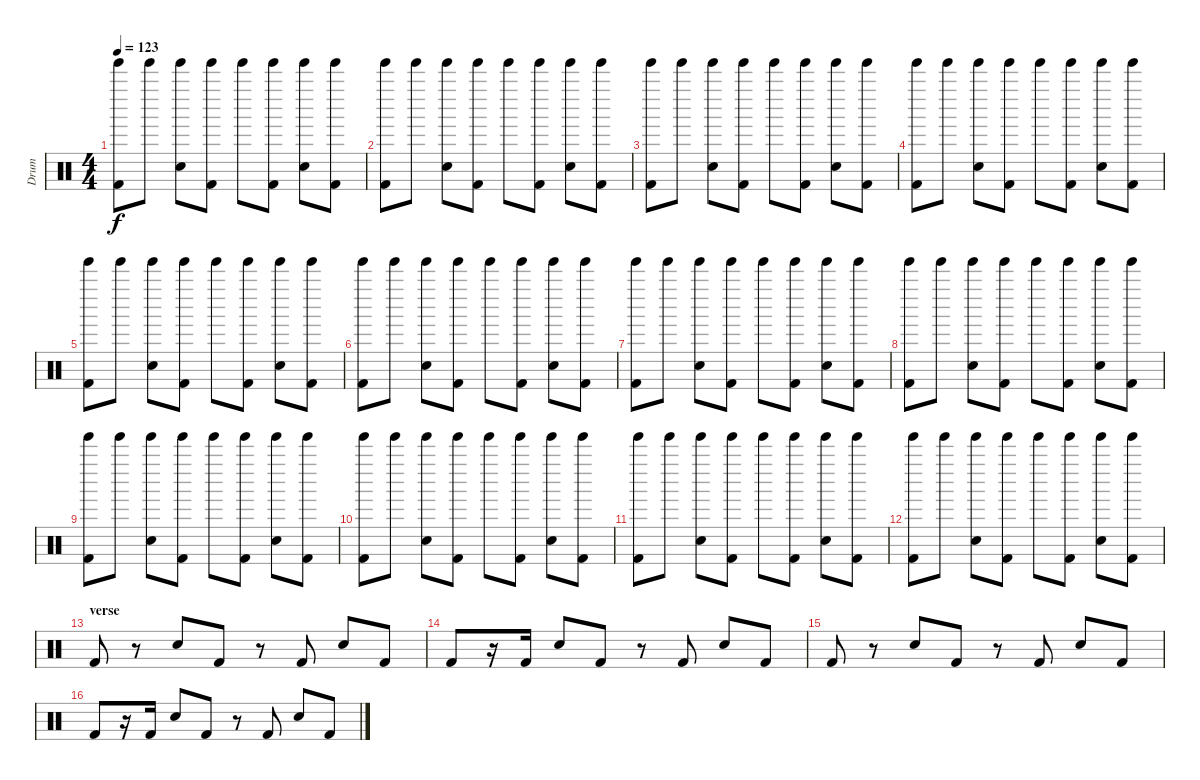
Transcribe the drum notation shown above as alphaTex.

\track ("Drum" "Drum") {instrument percussion}
\staff {score}
\articulation defaults
\ts (4 4)
\tempo 123
\clef neutral
\ks c
("Tinkle Bell (hit)" "Kick (hit) 2").8{dy f} "Tinkle Bell (hit)".8 ("Tinkle Bell (hit)" "Electric Snare (hit)").8 ("Tinkle Bell (hit)" "Kick (hit) 2").8 "Tinkle Bell (hit)".8 ("Tinkle Bell (hit)" "Kick (hit) 2").8 ("Tinkle Bell (hit)" "Electric Snare (hit)").8 ("Tinkle Bell (hit)" "Kick (hit) 2").8 |
("Tinkle Bell (hit)" "Kick (hit) 2").8 "Tinkle Bell (hit)".8 ("Tinkle Bell (hit)" "Electric Snare (hit)").8 ("Tinkle Bell (hit)" "Kick (hit) 2").8 "Tinkle Bell (hit)".8 ("Tinkle Bell (hit)" "Kick (hit) 2").8 ("Tinkle Bell (hit)" "Electric Snare (hit)").8 ("Tinkle Bell (hit)" "Kick (hit) 2").8 |
("Tinkle Bell (hit)" "Kick (hit) 2").8 "Tinkle Bell (hit)".8 ("Tinkle Bell (hit)" "Electric Snare (hit)").8 ("Tinkle Bell (hit)" "Kick (hit) 2").8 "Tinkle Bell (hit)".8 ("Tinkle Bell (hit)" "Kick (hit) 2").8 ("Tinkle Bell (hit)" "Electric Snare (hit)").8 ("Tinkle Bell (hit)" "Kick (hit) 2").8 |
("Tinkle Bell (hit)" "Kick (hit) 2").8 "Tinkle Bell (hit)".8 ("Tinkle Bell (hit)" "Electric Snare (hit)").8 ("Tinkle Bell (hit)" "Kick (hit) 2").8 "Tinkle Bell (hit)".8 ("Tinkle Bell (hit)" "Kick (hit) 2").8 ("Tinkle Bell (hit)" "Electric Snare (hit)").8 ("Tinkle Bell (hit)" "Kick (hit) 2").8 |
("Tinkle Bell (hit)" "Kick (hit) 2").8 "Tinkle Bell (hit)".8 ("Tinkle Bell (hit)" "Electric Snare (hit)").8 ("Tinkle Bell (hit)" "Kick (hit) 2").8 "Tinkle Bell (hit)".8 ("Tinkle Bell (hit)" "Kick (hit) 2").8 ("Tinkle Bell (hit)" "Electric Snare (hit)").8 ("Tinkle Bell (hit)" "Kick (hit) 2").8 |
("Tinkle Bell (hit)" "Kick (hit) 2").8 "Tinkle Bell (hit)".8 ("Tinkle Bell (hit)" "Electric Snare (hit)").8 ("Tinkle Bell (hit)" "Kick (hit) 2").8 "Tinkle Bell (hit)".8 ("Tinkle Bell (hit)" "Kick (hit) 2").8 ("Tinkle Bell (hit)" "Electric Snare (hit)").8 ("Tinkle Bell (hit)" "Kick (hit) 2").8 |
("Tinkle Bell (hit)" "Kick (hit) 2").8 "Tinkle Bell (hit)".8 ("Tinkle Bell (hit)" "Electric Snare (hit)").8 ("Tinkle Bell (hit)" "Kick (hit) 2").8 "Tinkle Bell (hit)".8 ("Tinkle Bell (hit)" "Kick (hit) 2").8 ("Tinkle Bell (hit)" "Electric Snare (hit)").8 ("Tinkle Bell (hit)" "Kick (hit) 2").8 |
("Tinkle Bell (hit)" "Kick (hit) 2").8 "Tinkle Bell (hit)".8 ("Tinkle Bell (hit)" "Electric Snare (hit)").8 ("Tinkle Bell (hit)" "Kick (hit) 2").8 "Tinkle Bell (hit)".8 ("Tinkle Bell (hit)" "Kick (hit) 2").8 ("Tinkle Bell (hit)" "Electric Snare (hit)").8 ("Tinkle Bell (hit)" "Kick (hit) 2").8 |
("Tinkle Bell (hit)" "Kick (hit) 2").8 "Tinkle Bell (hit)".8 ("Tinkle Bell (hit)" "Electric Snare (hit)").8 ("Tinkle Bell (hit)" "Kick (hit) 2").8 "Tinkle Bell (hit)".8 ("Tinkle Bell (hit)" "Kick (hit) 2").8 ("Tinkle Bell (hit)" "Electric Snare (hit)").8 ("Tinkle Bell (hit)" "Kick (hit) 2").8 |
("Tinkle Bell (hit)" "Kick (hit) 2").8 "Tinkle Bell (hit)".8 ("Tinkle Bell (hit)" "Electric Snare (hit)").8 ("Tinkle Bell (hit)" "Kick (hit) 2").8 "Tinkle Bell (hit)".8 ("Tinkle Bell (hit)" "Kick (hit) 2").8 ("Tinkle Bell (hit)" "Electric Snare (hit)").8 ("Tinkle Bell (hit)" "Kick (hit) 2").8 |
("Tinkle Bell (hit)" "Kick (hit) 2").8 "Tinkle Bell (hit)".8 ("Tinkle Bell (hit)" "Electric Snare (hit)").8 ("Tinkle Bell (hit)" "Kick (hit) 2").8 "Tinkle Bell (hit)".8 ("Tinkle Bell (hit)" "Kick (hit) 2").8 ("Tinkle Bell (hit)" "Electric Snare (hit)").8 ("Tinkle Bell (hit)" "Kick (hit) 2").8 |
("Tinkle Bell (hit)" "Kick (hit) 2").8 "Tinkle Bell (hit)".8 ("Tinkle Bell (hit)" "Electric Snare (hit)").8 ("Tinkle Bell (hit)" "Kick (hit) 2").8 "Tinkle Bell (hit)".8 ("Tinkle Bell (hit)" "Kick (hit) 2").8 ("Tinkle Bell (hit)" "Electric Snare (hit)").8 ("Tinkle Bell (hit)" "Kick (hit) 2").8 |
\section ("" "verse")
"Kick (hit) 2".8 r.8 "Electric Snare (hit)".8 "Kick (hit) 2".8 r.8 "Kick (hit) 2".8 "Electric Snare (hit)".8 "Kick (hit) 2".8 |
"Kick (hit) 2".8 r.16 "Kick (hit) 2".16 "Electric Snare (hit)".8 "Kick (hit) 2".8 r.8 "Kick (hit) 2".8 "Electric Snare (hit)".8 "Kick (hit) 2".8 |
"Kick (hit) 2".8 r.8 "Electric Snare (hit)".8 "Kick (hit) 2".8 r.8 "Kick (hit) 2".8 "Electric Snare (hit)".8 "Kick (hit) 2".8 |
"Kick (hit) 2".8 r.16 "Kick (hit) 2".16 "Electric Snare (hit)".8 "Kick (hit) 2".8 r.8 "Kick (hit) 2".8 "Electric Snare (hit)".8 "Kick (hit) 2".8
